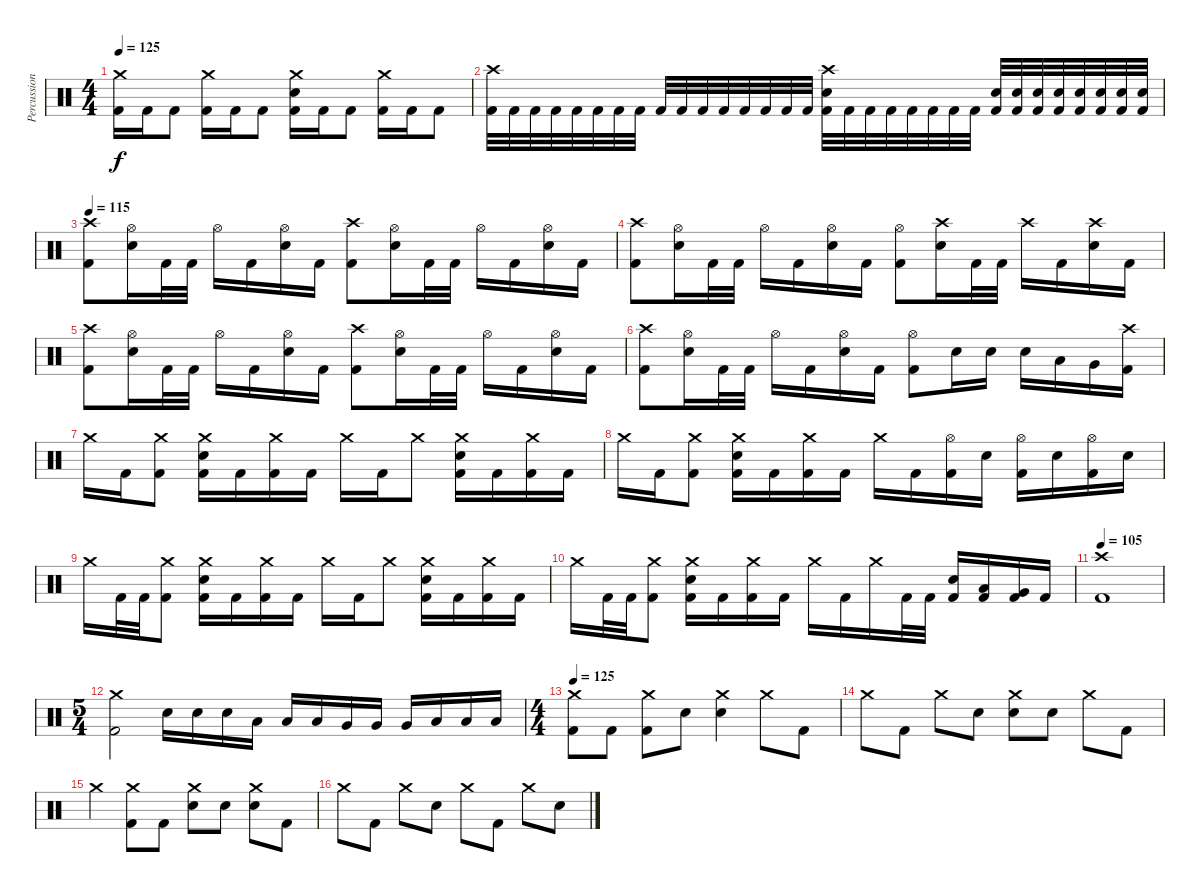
\track ("Percussion" "Percussion") {instrument percussion}
\staff {score}
\articulation defaults
\ts (4 4)
\tempo 125
\clef neutral
\ks c
("Crash medium (hit)" "Kick (hit) 2").16{dy f} "Kick (hit) 2".16 "Kick (hit) 2".8 ("Crash medium (hit)" "Kick (hit) 2").16 "Kick (hit) 2".16 "Kick (hit) 2".8 ("Crash medium (hit)" "Electric Snare (hit)" "Kick (hit) 2").16 "Kick (hit) 2".16 "Kick (hit) 2".8 ("Crash medium (hit)" "Kick (hit) 2").16 "Kick (hit) 2".16 "Kick (hit) 2".8 |
("Crash high (hit)" "Kick (hit) 2").32 "Kick (hit) 2".32 "Kick (hit) 2".32 "Kick (hit) 2".32 "Kick (hit) 2".32 "Kick (hit) 2".32 "Kick (hit) 2".32 "Kick (hit) 2".32 "Kick (hit) 2".32 "Kick (hit) 2".32 "Kick (hit) 2".32 "Kick (hit) 2".32 "Kick (hit) 2".32 "Kick (hit) 2".32 "Kick (hit) 2".32 "Kick (hit) 2".32 ("Crash high (hit)" "Electric Snare (hit)" "Kick (hit) 2").32 "Kick (hit) 2".32 "Kick (hit) 2".32 "Kick (hit) 2".32 "Kick (hit) 2".32 "Kick (hit) 2".32 "Kick (hit) 2".32 "Kick (hit) 2".32 ("Electric Snare (hit)" "Kick (hit) 2").32 ("Electric Snare (hit)" "Kick (hit) 2").32 ("Electric Snare (hit)" "Kick (hit) 2").32 ("Electric Snare (hit)" "Kick (hit) 2").32 ("Electric Snare (hit)" "Kick (hit) 2").32 ("Electric Snare (hit)" "Kick (hit) 2").32 ("Electric Snare (hit)" "Kick (hit) 2").32 ("Electric Snare (hit)" "Kick (hit) 2").32 |
\tempo 115
("Crash high (hit)" "Kick (hit) 2").8 ("Hi-Hat (open)" "Electric Snare (hit)").16 "Kick (hit) 2".32 "Kick (hit) 2".32 "Hi-Hat (open)".16 "Kick (hit) 2".16 ("Hi-Hat (open)" "Electric Snare (hit)").16 "Kick (hit) 2".16 ("Crash high (hit)" "Kick (hit) 2").8 ("Hi-Hat (open)" "Electric Snare (hit)").16 "Kick (hit) 2".32 "Kick (hit) 2".32 "Hi-Hat (open)".16 "Kick (hit) 2".16 ("Hi-Hat (open)" "Electric Snare (hit)").16 "Kick (hit) 2".16 |
("Crash high (hit)" "Kick (hit) 2").8 ("Hi-Hat (open)" "Electric Snare (hit)").16 "Kick (hit) 2".32 "Kick (hit) 2".32 "Hi-Hat (open)".16 "Kick (hit) 2".16 ("Hi-Hat (open)" "Electric Snare (hit)").16 "Kick (hit) 2".16 ("Hi-Hat (open)" "Kick (hit) 2").8 ("Crash high (hit)" "Electric Snare (hit)").16 "Kick (hit) 2".32 "Kick (hit) 2".32 "Crash high (hit)".16 "Kick (hit) 2".16 ("Crash high (hit)" "Electric Snare (hit)").16 "Kick (hit) 2".16 |
("Crash high (hit)" "Kick (hit) 2").8 ("Hi-Hat (open)" "Electric Snare (hit)").16 "Kick (hit) 2".32 "Kick (hit) 2".32 "Hi-Hat (open)".16 "Kick (hit) 2".16 ("Hi-Hat (open)" "Electric Snare (hit)").16 "Kick (hit) 2".16 ("Crash high (hit)" "Kick (hit) 2").8 ("Hi-Hat (open)" "Electric Snare (hit)").16 "Kick (hit) 2".32 "Kick (hit) 2".32 "Hi-Hat (open)".16 "Kick (hit) 2".16 ("Hi-Hat (open)" "Electric Snare (hit)").16 "Kick (hit) 2".16 |
("Crash high (hit)" "Kick (hit) 2").8 ("Hi-Hat (open)" "Electric Snare (hit)").16 "Kick (hit) 2".32 "Kick (hit) 2".32 "Hi-Hat (open)".16 "Kick (hit) 2".16 ("Hi-Hat (open)" "Electric Snare (hit)").16 "Kick (hit) 2".16 ("Hi-Hat (open)" "Kick (hit) 2").8 "Electric Snare (hit)".16 "Electric Snare (hit)".16 "Electric Snare (hit)".16 "Low Tom (hit)".16 "Very Low Tom (hit)".16 ("Crash high (hit)" "Kick (hit) 2").16 |
"Crash medium (hit)".16 "Kick (hit) 2".16 ("Crash medium (hit)" "Kick (hit) 2").8 ("Crash medium (hit)" "Electric Snare (hit)" "Kick (hit) 2").16 "Kick (hit) 2".16 ("Crash medium (hit)" "Kick (hit) 2").16 "Kick (hit) 2".16 "Crash medium (hit)".16 "Kick (hit) 2".16 "Crash medium (hit)".8 ("Crash medium (hit)" "Electric Snare (hit)" "Kick (hit) 2").16 "Kick (hit) 2".16 ("Crash medium (hit)" "Kick (hit) 2").16 "Kick (hit) 2".16 |
"Crash medium (hit)".16 "Kick (hit) 2".16 ("Crash medium (hit)" "Kick (hit) 2").8 ("Crash medium (hit)" "Electric Snare (hit)" "Kick (hit) 2").16 "Kick (hit) 2".16 ("Crash medium (hit)" "Kick (hit) 2").16 "Kick (hit) 2".16 "Crash medium (hit)".16 "Kick (hit) 2".16 ("Hi-Hat (open)" "Kick (hit) 2").16 "Electric Snare (hit)".16 ("Hi-Hat (open)" "Kick (hit) 2").16 "Electric Snare (hit)".16 ("Hi-Hat (open)" "Kick (hit) 2").16 "Electric Snare (hit)".16 |
"Crash medium (hit)".16 "Kick (hit) 2".32 "Kick (hit) 2".32 ("Crash medium (hit)" "Kick (hit) 2").8 ("Crash medium (hit)" "Electric Snare (hit)" "Kick (hit) 2").16 "Kick (hit) 2".16 ("Crash medium (hit)" "Kick (hit) 2").16 "Kick (hit) 2".16 "Crash medium (hit)".16 "Kick (hit) 2".16 "Crash medium (hit)".8 ("Crash medium (hit)" "Electric Snare (hit)" "Kick (hit) 2").16 "Kick (hit) 2".16 ("Crash medium (hit)" "Kick (hit) 2").16 "Kick (hit) 2".16 |
"Crash medium (hit)".16 "Kick (hit) 2".32 "Kick (hit) 2".32 ("Crash medium (hit)" "Kick (hit) 2").8 ("Crash medium (hit)" "Electric Snare (hit)" "Kick (hit) 2").16 "Kick (hit) 2".16 ("Crash medium (hit)" "Kick (hit) 2").16 "Kick (hit) 2".16 "Crash medium (hit)".16 "Kick (hit) 2".16 "Crash medium (hit)".16 "Kick (hit) 2".32 "Kick (hit) 2".32 ("Electric Snare (hit)" "Kick (hit) 2").16 ("Low Tom (hit)" "Kick (hit) 2").16 ("Very Low Tom (hit)" "Kick (hit) 2").16 "Kick (hit) 2".16 |
\tempo 105
("Crash high (hit)" "Kick (hit) 2").1 |
\ts (5 4)
("Crash medium (hit)" "Kick (hit) 2").2 "Electric Snare (hit)".16 "Electric Snare (hit)".16 "Electric Snare (hit)".16 "Low Tom (hit)".16 "Low Tom (hit)".16 "Low Tom (hit)".16 "Very Low Tom (hit)".16 "Very Low Tom (hit)".16 "Very Low Tom (hit)".16 "Low Floor Tom (hit)".16 "Low Floor Tom (hit)".16 "Low Floor Tom (hit)".16 |
\ts (4 4)
\tempo 125
("Crash medium (hit)" "Kick (hit) 2").8 "Kick (hit) 2".8 ("Crash medium (hit)" "Kick (hit) 2").8 "Electric Snare (hit)".8 ("Crash medium (hit)" "Electric Snare (hit)").4 "Crash medium (hit)".8 "Kick (hit) 2".8 |
"Crash medium (hit)".8 "Kick (hit) 2".8 "Crash medium (hit)".8 "Electric Snare (hit)".8 ("Crash medium (hit)" "Electric Snare (hit)").8 "Electric Snare (hit)".8 "Crash medium (hit)".8 "Kick (hit) 2".8 |
"Crash medium (hit)".4 ("Crash medium (hit)" "Kick (hit) 2").8 "Kick (hit) 2".8 ("Crash medium (hit)" "Electric Snare (hit)").8 "Electric Snare (hit)".8 ("Crash medium (hit)" "Electric Snare (hit)").8 "Kick (hit) 2".8 |
"Crash medium (hit)".8 "Kick (hit) 2".8 "Crash medium (hit)".8 "Electric Snare (hit)".8 "Crash medium (hit)".8 "Kick (hit) 2".8 "Crash medium (hit)".8 "Electric Snare (hit)".8
